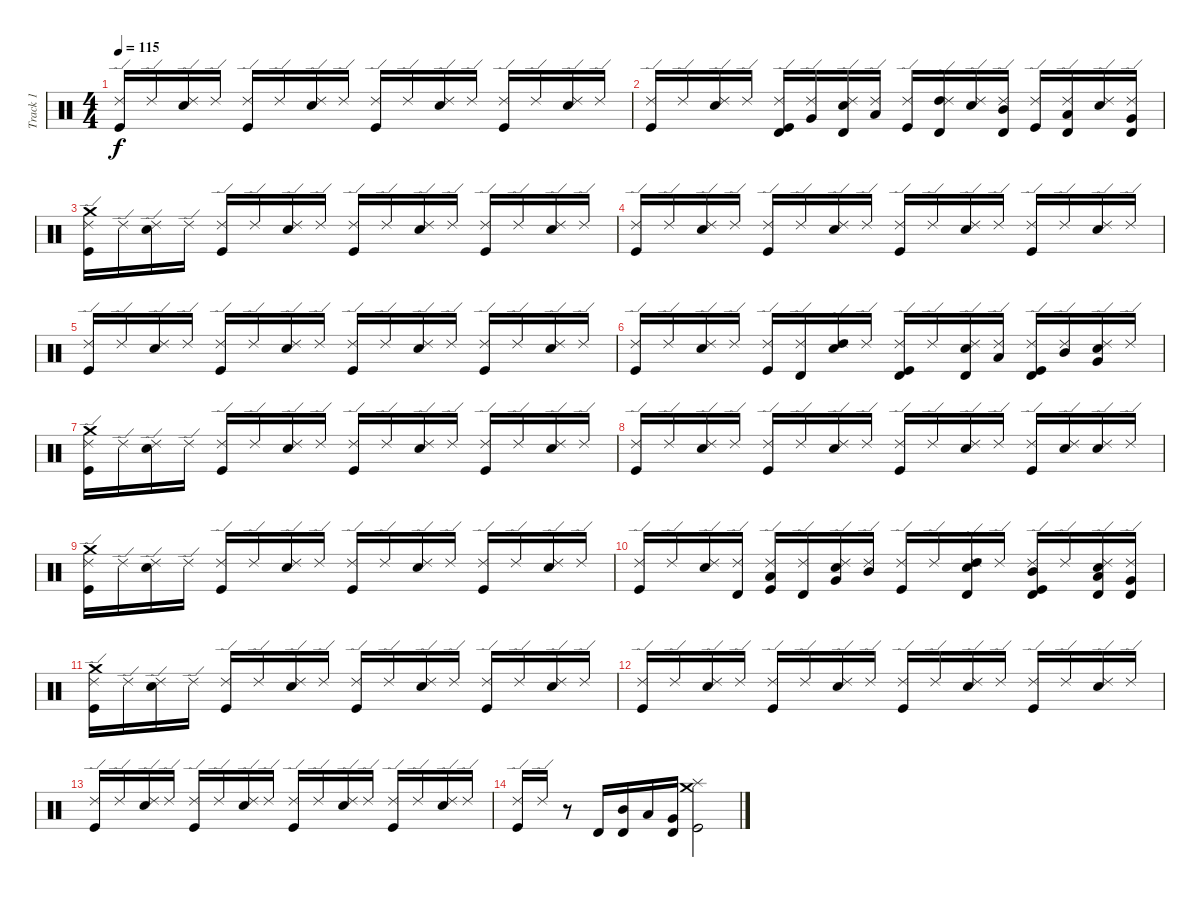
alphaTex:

\track ("Track 1" "Track 1") {instrument percussion}
\staff {score}
\articulation defaults
\ts (4 4)
\tempo 115
\clef neutral
\ks c
("Kick (hit)" "Ride (edge) 2").16{dy f} "Ride (edge) 2".16 ("Electric Snare (hit)" "Ride (edge) 2").16 "Ride (edge) 2".16 ("Kick (hit)" "Ride (edge) 2").16 "Ride (edge) 2".16 ("Electric Snare (hit)" "Ride (edge) 2").16 "Ride (edge) 2".16 ("Kick (hit)" "Ride (edge) 2").16 "Ride (edge) 2".16 ("Electric Snare (hit)" "Ride (edge) 2").16 "Ride (edge) 2".16 ("Kick (hit)" "Ride (edge) 2").16 "Ride (edge) 2".16 ("Electric Snare (hit)" "Ride (edge) 2").16 "Ride (edge) 2".16 |
("Kick (hit)" "Ride (edge) 2").16 "Ride (edge) 2".16 ("Electric Snare (hit)" "Ride (edge) 2").16 "Ride (edge) 2".16 ("Kick (hit)" "Ride (edge) 2" "Timbale high (hit)").16 ("Very Low Tom (hit)" "Ride (edge) 2").16 ("Electric Snare (hit)" "Ride (edge) 2" "Timbale high (hit)").16 ("Low Tom (hit)" "Ride (edge) 2").16 ("Kick (hit)" "Ride (edge) 2").16 ("High Tom (hit)" "Ride (edge) 2" "Timbale high (hit)").16 ("Electric Snare (hit)" "Ride (edge) 2").16 ("Mid Tom (hit)" "Ride (edge) 2" "Timbale high (hit)").16 ("Kick (hit)" "Ride (edge) 2").16 ("Low Tom (hit)" "Ride (edge) 2" "Timbale high (hit)").16 ("Electric Snare (hit)" "Ride (edge) 2").16 ("Very Low Tom (hit)" "Ride (edge) 2" "Timbale high (hit)").16 |
("Kick (hit)" "Crash medium (hit)" "Ride (edge) 2").16 "Ride (edge) 2".16 ("Electric Snare (hit)" "Ride (edge) 2").16 "Ride (edge) 2".16 ("Kick (hit)" "Ride (edge) 2").16 "Ride (edge) 2".16 ("Electric Snare (hit)" "Ride (edge) 2").16 "Ride (edge) 2".16 ("Kick (hit)" "Ride (edge) 2").16 "Ride (edge) 2".16 ("Electric Snare (hit)" "Ride (edge) 2").16 "Ride (edge) 2".16 ("Kick (hit)" "Ride (edge) 2").16 "Ride (edge) 2".16 ("Electric Snare (hit)" "Ride (edge) 2").16 "Ride (edge) 2".16 |
("Kick (hit)" "Ride (edge) 2").16 "Ride (edge) 2".16 ("Electric Snare (hit)" "Ride (edge) 2").16 "Ride (edge) 2".16 ("Kick (hit)" "Ride (edge) 2").16 "Ride (edge) 2".16 ("Electric Snare (hit)" "Ride (edge) 2").16 "Ride (edge) 2".16 ("Kick (hit)" "Ride (edge) 2").16 "Ride (edge) 2".16 ("Electric Snare (hit)" "Ride (edge) 2").16 "Ride (edge) 2".16 ("Kick (hit)" "Ride (edge) 2").16 "Ride (edge) 2".16 ("Electric Snare (hit)" "Ride (edge) 2").16 "Ride (edge) 2".16 |
("Kick (hit)" "Ride (edge) 2").16 "Ride (edge) 2".16 ("Electric Snare (hit)" "Ride (edge) 2").16 "Ride (edge) 2".16 ("Kick (hit)" "Ride (edge) 2").16 "Ride (edge) 2".16 ("Electric Snare (hit)" "Ride (edge) 2").16 "Ride (edge) 2".16 ("Kick (hit)" "Ride (edge) 2").16 "Ride (edge) 2".16 ("Electric Snare (hit)" "Ride (edge) 2").16 "Ride (edge) 2".16 ("Kick (hit)" "Ride (edge) 2").16 "Ride (edge) 2".16 ("Electric Snare (hit)" "Ride (edge) 2").16 "Ride (edge) 2".16 |
("Kick (hit)" "Ride (edge) 2").16 "Ride (edge) 2".16 ("Electric Snare (hit)" "Ride (edge) 2").16 "Ride (edge) 2".16 ("Kick (hit)" "Ride (edge) 2").16 ("Ride (edge) 2" "Timbale high (hit)").16 ("Electric Snare (hit)" "High Tom (hit)" "Ride (edge) 2").16 "Ride (edge) 2".16 ("Kick (hit)" "Ride (edge) 2" "Timbale high (hit)").16 "Ride (edge) 2".16 ("Electric Snare (hit)" "Ride (edge) 2" "Timbale high (hit)").16 ("Low Tom (hit)" "Ride (edge) 2").16 ("Kick (hit)" "Ride (edge) 2" "Timbale high (hit)").16 ("Mid Tom (hit)" "Ride (edge) 2").16 ("Electric Snare (hit)" "Very Low Tom (hit)" "Ride (edge) 2").16 "Ride (edge) 2".16 |
("Kick (hit)" "Crash medium (hit)" "Ride (edge) 2").16 "Ride (edge) 2".16 ("Electric Snare (hit)" "Ride (edge) 2").16 "Ride (edge) 2".16 ("Kick (hit)" "Ride (edge) 2").16 "Ride (edge) 2".16 ("Electric Snare (hit)" "Ride (edge) 2").16 "Ride (edge) 2".16 ("Kick (hit)" "Ride (edge) 2").16 "Ride (edge) 2".16 ("Electric Snare (hit)" "Ride (edge) 2").16 "Ride (edge) 2".16 ("Kick (hit)" "Ride (edge) 2").16 "Ride (edge) 2".16 ("Electric Snare (hit)" "Ride (edge) 2").16 "Ride (edge) 2".16 |
("Kick (hit)" "Ride (edge) 2").16 "Ride (edge) 2".16 ("Electric Snare (hit)" "Ride (edge) 2").16 "Ride (edge) 2".16 ("Kick (hit)" "Ride (edge) 2").16 "Ride (edge) 2".16 ("Electric Snare (hit)" "Ride (edge) 2").16 "Ride (edge) 2".16 ("Kick (hit)" "Ride (edge) 2").16 "Ride (edge) 2".16 ("Electric Snare (hit)" "Ride (edge) 2").16 "Ride (edge) 2".16 ("Kick (hit)" "Ride (edge) 2").16 ("Electric Snare (hit)" "Ride (edge) 2").16 ("Electric Snare (hit)" "Ride (edge) 2").16 "Ride (edge) 2".16 |
("Kick (hit)" "Crash medium (hit)" "Ride (edge) 2").16 "Ride (edge) 2".16 ("Electric Snare (hit)" "Ride (edge) 2").16 "Ride (edge) 2".16 ("Kick (hit)" "Ride (edge) 2").16 "Ride (edge) 2".16 ("Electric Snare (hit)" "Ride (edge) 2").16 "Ride (edge) 2".16 ("Kick (hit)" "Ride (edge) 2").16 "Ride (edge) 2".16 ("Electric Snare (hit)" "Ride (edge) 2").16 "Ride (edge) 2".16 ("Kick (hit)" "Ride (edge) 2").16 "Ride (edge) 2".16 ("Electric Snare (hit)" "Ride (edge) 2").16 "Ride (edge) 2".16 |
("Kick (hit)" "Ride (edge) 2").16 "Ride (edge) 2".16 ("Electric Snare (hit)" "Ride (edge) 2").16 ("Ride (edge) 2" "Timbale high (hit)").16 ("Kick (hit)" "Low Tom (hit)" "Ride (edge) 2").16 ("Ride (edge) 2" "Timbale high (hit)").16 ("Electric Snare (hit)" "Very Low Tom (hit)" "Ride (edge) 2").16 ("Mid Tom (hit)" "Ride (edge) 2").16 ("Kick (hit)" "Ride (edge) 2").16 "Ride (edge) 2".16 ("Electric Snare (hit)" "High Tom (hit)" "Ride (edge) 2" "Timbale high (hit)").16 "Ride (edge) 2".16 ("Kick (hit)" "Mid Tom (hit)" "Ride (edge) 2" "Timbale high (hit)").16 "Ride (edge) 2".16 ("Electric Snare (hit)" "Low Tom (hit)" "Ride (edge) 2" "Timbale high (hit)").16 ("Very Low Tom (hit)" "Ride (edge) 2" "Timbale high (hit)").16 |
("Kick (hit)" "Crash medium (hit)" "Ride (edge) 2").16 "Ride (edge) 2".16 ("Electric Snare (hit)" "Ride (edge) 2").16 "Ride (edge) 2".16 ("Kick (hit)" "Ride (edge) 2").16 "Ride (edge) 2".16 ("Electric Snare (hit)" "Ride (edge) 2").16 "Ride (edge) 2".16 ("Kick (hit)" "Ride (edge) 2").16 "Ride (edge) 2".16 ("Electric Snare (hit)" "Ride (edge) 2").16 "Ride (edge) 2".16 ("Kick (hit)" "Ride (edge) 2").16 "Ride (edge) 2".16 ("Electric Snare (hit)" "Ride (edge) 2").16 "Ride (edge) 2".16 |
("Kick (hit)" "Ride (edge) 2").16 "Ride (edge) 2".16 ("Electric Snare (hit)" "Ride (edge) 2").16 "Ride (edge) 2".16 ("Kick (hit)" "Ride (edge) 2").16 "Ride (edge) 2".16 ("Electric Snare (hit)" "Ride (edge) 2").16 "Ride (edge) 2".16 ("Kick (hit)" "Ride (edge) 2").16 "Ride (edge) 2".16 ("Electric Snare (hit)" "Ride (edge) 2").16 "Ride (edge) 2".16 ("Kick (hit)" "Ride (edge) 2").16 "Ride (edge) 2".16 ("Electric Snare (hit)" "Ride (edge) 2").16 "Ride (edge) 2".16 |
("Kick (hit)" "Ride (edge) 2").16 "Ride (edge) 2".16 ("Electric Snare (hit)" "Ride (edge) 2").16 "Ride (edge) 2".16 ("Kick (hit)" "Ride (edge) 2").16 "Ride (edge) 2".16 ("Electric Snare (hit)" "Ride (edge) 2").16 "Ride (edge) 2".16 ("Kick (hit)" "Ride (edge) 2").16 "Ride (edge) 2".16 ("Electric Snare (hit)" "Ride (edge) 2").16 "Ride (edge) 2".16 ("Kick (hit)" "Ride (edge) 2").16 "Ride (edge) 2".16 ("Electric Snare (hit)" "Ride (edge) 2").16 "Ride (edge) 2".16 |
("Kick (hit)" "Ride (edge) 2").16 "Ride (edge) 2".16 r.8 "Timbale high (hit)".16 ("Mid Tom (hit)" "Timbale high (hit)").16 "Low Tom (hit)".16 ("Very Low Tom (hit)" "Timbale high (hit)").16 ("Kick (hit)" "Splash (hit)" "Crash medium (hit)").2
